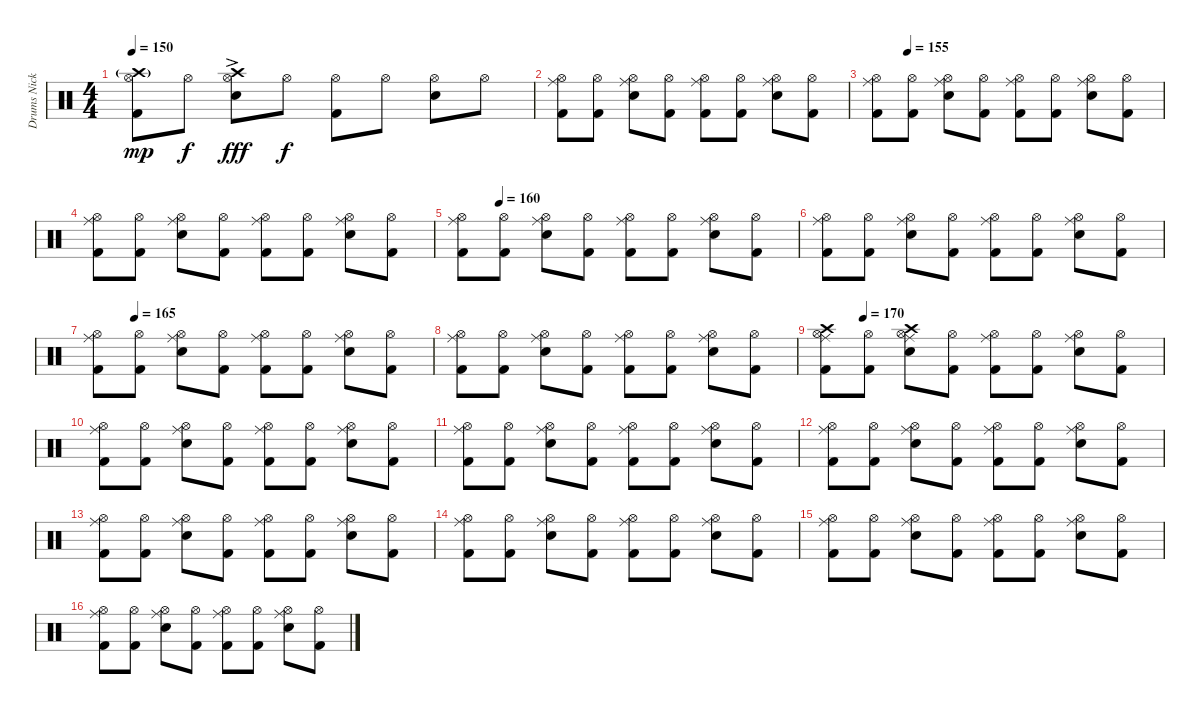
\track ("Drums Nicko McBrain" "Drums Nick") {instrument percussion}
\staff {score}
\articulation defaults
\ts (4 4)
\tempo 150
\clef neutral
\ks c
("Hi-Hat (open)" "Crash high (hit)"{g} "Kick (hit) 2").8{dy mp} "Hi-Hat (open)".8{dy f} ("Hi-Hat (open)" "Crash high (hit)"{ac} "Snare (hit) 2").8{dy fff} "Hi-Hat (open)".8{dy f} ("Hi-Hat (open)" "Kick (hit) 2").8 "Hi-Hat (open)".8 ("Hi-Hat (open)" "Snare (hit) 2").8 "Hi-Hat (open)".8 |
("Hi-Hat (open)" "Ride (middle)" "Kick (hit) 2").8 ("Hi-Hat (open)" "Kick (hit) 2").8 ("Hi-Hat (open)" "Ride (middle)" "Snare (hit) 2").8 ("Hi-Hat (open)" "Kick (hit) 2").8 ("Hi-Hat (open)" "Ride (middle)" "Kick (hit) 2").8 ("Hi-Hat (open)" "Kick (hit) 2").8 ("Hi-Hat (open)" "Ride (middle)" "Snare (hit) 2").8 ("Hi-Hat (open)" "Kick (hit) 2").8 |
\tempo (155 0.125)
("Hi-Hat (open)" "Ride (middle)" "Kick (hit) 2").8 ("Hi-Hat (open)" "Kick (hit) 2").8 ("Hi-Hat (open)" "Ride (middle)" "Snare (hit) 2").8 ("Hi-Hat (open)" "Kick (hit) 2").8 ("Hi-Hat (open)" "Ride (middle)" "Kick (hit) 2").8 ("Hi-Hat (open)" "Kick (hit) 2").8 ("Hi-Hat (open)" "Ride (middle)" "Snare (hit) 2").8 ("Hi-Hat (open)" "Kick (hit) 2").8 |
("Hi-Hat (open)" "Ride (middle)" "Kick (hit) 2").8 ("Hi-Hat (open)" "Kick (hit) 2").8 ("Hi-Hat (open)" "Ride (middle)" "Snare (hit) 2").8 ("Hi-Hat (open)" "Kick (hit) 2").8 ("Hi-Hat (open)" "Ride (middle)" "Kick (hit) 2").8 ("Hi-Hat (open)" "Kick (hit) 2").8 ("Hi-Hat (open)" "Ride (middle)" "Snare (hit) 2").8 ("Hi-Hat (open)" "Kick (hit) 2").8 |
\tempo (160 0.125)
("Hi-Hat (open)" "Ride (middle)" "Kick (hit) 2").8 ("Hi-Hat (open)" "Kick (hit) 2").8 ("Hi-Hat (open)" "Ride (middle)" "Snare (hit) 2").8 ("Hi-Hat (open)" "Kick (hit) 2").8 ("Hi-Hat (open)" "Ride (middle)" "Kick (hit) 2").8 ("Hi-Hat (open)" "Kick (hit) 2").8 ("Hi-Hat (open)" "Ride (middle)" "Snare (hit) 2").8 ("Hi-Hat (open)" "Kick (hit) 2").8 |
("Hi-Hat (open)" "Ride (middle)" "Kick (hit) 2").8 ("Hi-Hat (open)" "Kick (hit) 2").8 ("Hi-Hat (open)" "Ride (middle)" "Snare (hit) 2").8 ("Hi-Hat (open)" "Kick (hit) 2").8 ("Hi-Hat (open)" "Ride (middle)" "Kick (hit) 2").8 ("Hi-Hat (open)" "Kick (hit) 2").8 ("Hi-Hat (open)" "Ride (middle)" "Snare (hit) 2").8 ("Hi-Hat (open)" "Kick (hit) 2").8 |
\tempo (165 0.125)
("Hi-Hat (open)" "Ride (middle)" "Kick (hit) 2").8 ("Hi-Hat (open)" "Kick (hit) 2").8 ("Hi-Hat (open)" "Ride (middle)" "Snare (hit) 2").8 ("Hi-Hat (open)" "Kick (hit) 2").8 ("Hi-Hat (open)" "Ride (middle)" "Kick (hit) 2").8 ("Hi-Hat (open)" "Kick (hit) 2").8 ("Hi-Hat (open)" "Ride (middle)" "Snare (hit) 2").8 ("Hi-Hat (open)" "Kick (hit) 2").8 |
("Hi-Hat (open)" "Ride (middle)" "Kick (hit) 2").8 ("Hi-Hat (open)" "Kick (hit) 2").8 ("Hi-Hat (open)" "Ride (middle)" "Snare (hit) 2").8 ("Hi-Hat (open)" "Kick (hit) 2").8 ("Hi-Hat (open)" "Ride (middle)" "Kick (hit) 2").8 ("Hi-Hat (open)" "Kick (hit) 2").8 ("Hi-Hat (open)" "Ride (middle)" "Snare (hit) 2").8 ("Hi-Hat (open)" "Kick (hit) 2").8 |
\tempo (170 0.125)
("Hi-Hat (open)" "Ride (middle)" "Kick (hit) 2" "Crash high (hit)").8 ("Hi-Hat (open)" "Kick (hit) 2").8 ("Hi-Hat (open)" "Ride (middle)" "Snare (hit) 2" "Crash high (hit)").8 ("Hi-Hat (open)" "Kick (hit) 2").8 ("Hi-Hat (open)" "Ride (middle)" "Kick (hit) 2").8 ("Hi-Hat (open)" "Kick (hit) 2").8 ("Hi-Hat (open)" "Ride (middle)" "Snare (hit) 2").8 ("Hi-Hat (open)" "Kick (hit) 2").8 |
("Hi-Hat (open)" "Ride (middle)" "Kick (hit) 2").8 ("Hi-Hat (open)" "Kick (hit) 2").8 ("Hi-Hat (open)" "Ride (middle)" "Snare (hit) 2").8 ("Hi-Hat (open)" "Kick (hit) 2").8 ("Hi-Hat (open)" "Ride (middle)" "Kick (hit) 2").8 ("Hi-Hat (open)" "Kick (hit) 2").8 ("Hi-Hat (open)" "Ride (middle)" "Snare (hit) 2").8 ("Hi-Hat (open)" "Kick (hit) 2").8 |
("Hi-Hat (open)" "Ride (middle)" "Kick (hit) 2").8 ("Hi-Hat (open)" "Kick (hit) 2").8 ("Hi-Hat (open)" "Ride (middle)" "Snare (hit) 2").8 ("Hi-Hat (open)" "Kick (hit) 2").8 ("Hi-Hat (open)" "Ride (middle)" "Kick (hit) 2").8 ("Hi-Hat (open)" "Kick (hit) 2").8 ("Hi-Hat (open)" "Ride (middle)" "Snare (hit) 2").8 ("Hi-Hat (open)" "Kick (hit) 2").8 |
("Hi-Hat (open)" "Ride (middle)" "Kick (hit) 2").8 ("Hi-Hat (open)" "Kick (hit) 2").8 ("Hi-Hat (open)" "Ride (middle)" "Snare (hit) 2").8 ("Hi-Hat (open)" "Kick (hit) 2").8 ("Hi-Hat (open)" "Ride (middle)" "Kick (hit) 2").8 ("Hi-Hat (open)" "Kick (hit) 2").8 ("Hi-Hat (open)" "Ride (middle)" "Snare (hit) 2").8 ("Hi-Hat (open)" "Kick (hit) 2").8 |
("Hi-Hat (open)" "Ride (middle)" "Kick (hit) 2").8 ("Hi-Hat (open)" "Kick (hit) 2").8 ("Hi-Hat (open)" "Ride (middle)" "Snare (hit) 2").8 ("Hi-Hat (open)" "Kick (hit) 2").8 ("Hi-Hat (open)" "Ride (middle)" "Kick (hit) 2").8 ("Hi-Hat (open)" "Kick (hit) 2").8 ("Hi-Hat (open)" "Ride (middle)" "Snare (hit) 2").8 ("Hi-Hat (open)" "Kick (hit) 2").8 |
("Hi-Hat (open)" "Ride (middle)" "Kick (hit) 2").8 ("Hi-Hat (open)" "Kick (hit) 2").8 ("Hi-Hat (open)" "Ride (middle)" "Snare (hit) 2").8 ("Hi-Hat (open)" "Kick (hit) 2").8 ("Hi-Hat (open)" "Ride (middle)" "Kick (hit) 2").8 ("Hi-Hat (open)" "Kick (hit) 2").8 ("Hi-Hat (open)" "Ride (middle)" "Snare (hit) 2").8 ("Hi-Hat (open)" "Kick (hit) 2").8 |
("Hi-Hat (open)" "Ride (middle)" "Kick (hit) 2").8 ("Hi-Hat (open)" "Kick (hit) 2").8 ("Hi-Hat (open)" "Ride (middle)" "Snare (hit) 2").8 ("Hi-Hat (open)" "Kick (hit) 2").8 ("Hi-Hat (open)" "Ride (middle)" "Kick (hit) 2").8 ("Hi-Hat (open)" "Kick (hit) 2").8 ("Hi-Hat (open)" "Ride (middle)" "Snare (hit) 2").8 ("Hi-Hat (open)" "Kick (hit) 2").8 |
("Hi-Hat (open)" "Ride (middle)" "Kick (hit) 2").8 ("Hi-Hat (open)" "Kick (hit) 2").8 ("Hi-Hat (open)" "Ride (middle)" "Snare (hit) 2").8 ("Hi-Hat (open)" "Kick (hit) 2").8 ("Hi-Hat (open)" "Ride (middle)" "Kick (hit) 2").8 ("Hi-Hat (open)" "Kick (hit) 2").8 ("Hi-Hat (open)" "Ride (middle)" "Snare (hit) 2").8 ("Hi-Hat (open)" "Kick (hit) 2").8
